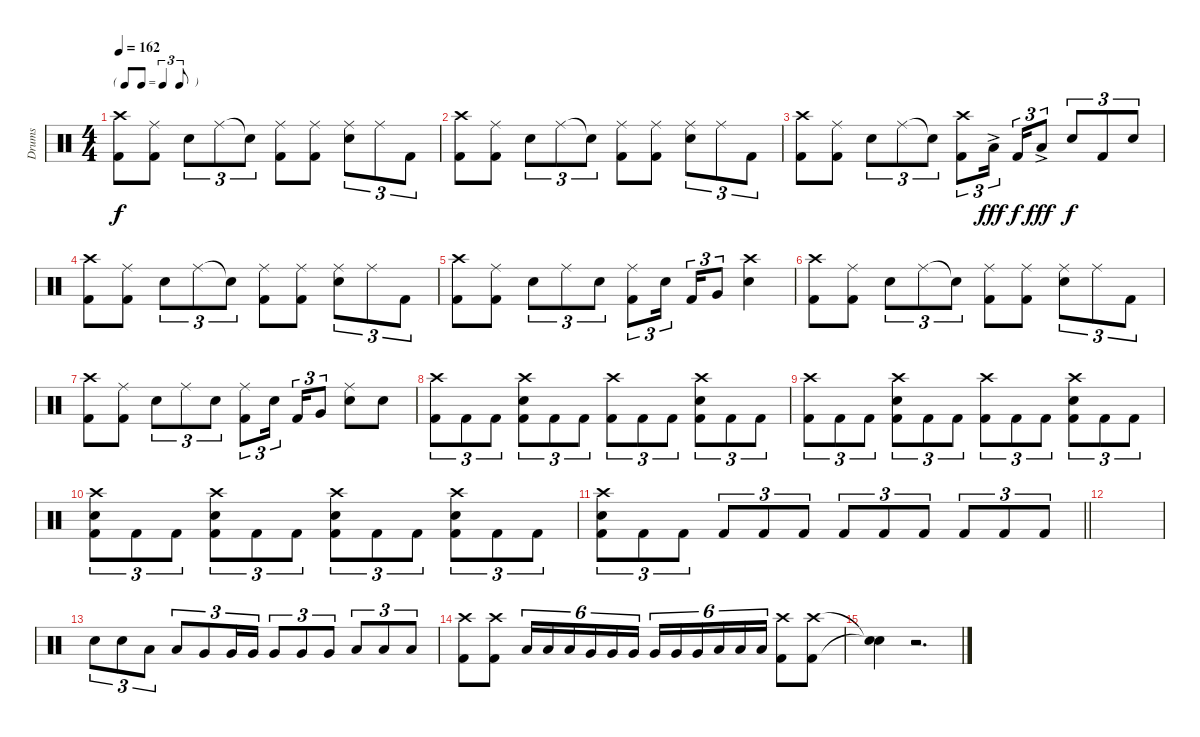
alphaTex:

\track ("Drums" "Drums") {instrument percussion}
\staff {score}
\articulation defaults
\ts (4 4)
\tf triplet8th
\tempo 162
\clef neutral
\ks c
("Crash high (hit)" "Kick (hit) 2").8{dy f} ("Ride (middle)" "Kick (hit) 2").8 "Snare (hit) 2".8{tu (3 2)} "Ride (middle)".8{tu (3 2)} "Snare (hit)"{t}.8{tu (3 2)} ("Ride (middle)" "Kick (hit) 2").8 ("Ride (middle)" "Kick (hit) 2").8 ("Ride (middle)" "Snare (hit) 2").8{tu (3 2)} "Ride (middle)".8{tu (3 2)} "Kick (hit) 2".8{tu (3 2)} |
("Crash high (hit)" "Kick (hit) 2").8 ("Ride (middle)" "Kick (hit) 2").8 "Snare (hit) 2".8{tu (3 2)} "Ride (middle)".8{tu (3 2)} "Snare (hit)"{t}.8{tu (3 2)} ("Ride (middle)" "Kick (hit) 2").8 ("Ride (middle)" "Kick (hit) 2").8 ("Ride (middle)" "Snare (hit) 2").8{tu (3 2)} "Ride (middle)".8{tu (3 2)} "Kick (hit) 2".8{tu (3 2)} |
("Crash high (hit)" "Kick (hit) 2").8 ("Ride (middle)" "Kick (hit) 2").8 "Snare (hit) 2".8{tu (3 2)} "Ride (middle)".8{tu (3 2)} "Snare (hit)"{t}.8{tu (3 2)} ("Crash high (hit)" "Kick (hit) 2").8{tu (3 2)} "Low Tom (hit)"{ac}.16{tu (3 2) dy fff} "Kick (hit) 2".16{tu (3 2) dy f} "Low Tom (hit)"{ac}.8{tu (3 2) dy fff} "Snare (hit) 2".8{tu (3 2) dy f} "Kick (hit) 2".8{tu (3 2)} "Snare (hit) 2".8{tu (3 2)} |
("Crash high (hit)" "Kick (hit) 2").8 ("Ride (middle)" "Kick (hit) 2").8 "Snare (hit) 2".8{tu (3 2)} "Ride (middle)".8{tu (3 2)} "Snare (hit)"{t}.8{tu (3 2)} ("Ride (middle)" "Kick (hit) 2").8 ("Ride (middle)" "Kick (hit) 2").8 ("Ride (middle)" "Snare (hit) 2").8{tu (3 2)} "Ride (middle)".8{tu (3 2)} "Kick (hit) 2".8{tu (3 2)} |
("Crash high (hit)" "Kick (hit) 2").8 ("Ride (middle)" "Kick (hit) 2").8 "Snare (hit) 2".8{tu (3 2)} "Ride (middle)".8{tu (3 2)} "Snare (hit) 2".8{tu (3 2)} ("Ride (middle)" "Kick (hit) 2").8{tu (3 2)} "Snare (hit) 2".16{tu (3 2)} "Kick (hit) 2".16{tu (3 2)} "Very Low Tom (hit)".8{tu (3 2)} ("Crash high (hit)" "Snare (hit) 2").4 |
("Crash high (hit)" "Kick (hit) 2").8 ("Ride (middle)" "Kick (hit) 2").8 "Snare (hit) 2".8{tu (3 2)} "Ride (middle)".8{tu (3 2)} "Snare (hit)"{t}.8{tu (3 2)} ("Ride (middle)" "Kick (hit) 2").8 ("Ride (middle)" "Kick (hit) 2").8 ("Ride (middle)" "Snare (hit) 2").8{tu (3 2)} "Ride (middle)".8{tu (3 2)} "Kick (hit) 2".8{tu (3 2)} |
("Crash high (hit)" "Kick (hit) 2").8 ("Ride (middle)" "Kick (hit) 2").8 "Snare (hit) 2".8{tu (3 2)} "Ride (middle)".8{tu (3 2)} "Snare (hit) 2".8{tu (3 2)} ("Ride (middle)" "Kick (hit) 2").8{tu (3 2)} "Snare (hit) 2".16{tu (3 2)} "Kick (hit) 2".16{tu (3 2)} "Very Low Tom (hit)".8{tu (3 2)} ("Ride (middle)" "Snare (hit) 2").8 "Snare (hit) 2".8 |
("Crash high (hit)" "Kick (hit) 2").8{tu (3 2)} "Kick (hit) 2".8{tu (3 2)} "Kick (hit) 2".8{tu (3 2)} ("Crash high (hit)" "Snare (hit) 2" "Kick (hit) 2").8{tu (3 2)} "Kick (hit) 2".8{tu (3 2)} "Kick (hit) 2".8{tu (3 2)} ("Crash high (hit)" "Kick (hit) 2").8{tu (3 2)} "Kick (hit) 2".8{tu (3 2)} "Kick (hit) 2".8{tu (3 2)} ("Crash high (hit)" "Snare (hit) 2" "Kick (hit) 2").8{tu (3 2)} "Kick (hit) 2".8{tu (3 2)} "Kick (hit) 2".8{tu (3 2)} |
("Crash high (hit)" "Kick (hit) 2").8{tu (3 2)} "Kick (hit) 2".8{tu (3 2)} "Kick (hit) 2".8{tu (3 2)} ("Crash high (hit)" "Snare (hit) 2" "Kick (hit) 2").8{tu (3 2)} "Kick (hit) 2".8{tu (3 2)} "Kick (hit) 2".8{tu (3 2)} ("Crash high (hit)" "Kick (hit) 2").8{tu (3 2)} "Kick (hit) 2".8{tu (3 2)} "Kick (hit) 2".8{tu (3 2)} ("Crash high (hit)" "Snare (hit) 2" "Kick (hit) 2").8{tu (3 2)} "Kick (hit) 2".8{tu (3 2)} "Kick (hit) 2".8{tu (3 2)} |
("Crash high (hit)" "Snare (hit) 2" "Kick (hit) 2").8{tu (3 2)} "Kick (hit) 2".8{tu (3 2)} "Kick (hit) 2".8{tu (3 2)} ("Crash high (hit)" "Snare (hit) 2" "Kick (hit) 2").8{tu (3 2)} "Kick (hit) 2".8{tu (3 2)} "Kick (hit) 2".8{tu (3 2)} ("Crash high (hit)" "Snare (hit) 2" "Kick (hit) 2").8{tu (3 2)} "Kick (hit) 2".8{tu (3 2)} "Kick (hit) 2".8{tu (3 2)} ("Crash high (hit)" "Snare (hit) 2" "Kick (hit) 2").8{tu (3 2)} "Kick (hit) 2".8{tu (3 2)} "Kick (hit) 2".8{tu (3 2)} |
\barLineRight lightlight
("Crash high (hit)" "Snare (hit) 2" "Kick (hit) 2").8{tu (3 2)} "Kick (hit) 2".8{tu (3 2)} "Kick (hit) 2".8{tu (3 2)} "Kick (hit) 2".8{tu (3 2)} "Kick (hit) 2".8{tu (3 2)} "Kick (hit) 2".8{tu (3 2)} "Kick (hit) 2".8{tu (3 2)} "Kick (hit) 2".8{tu (3 2)} "Kick (hit) 2".8{tu (3 2)} "Kick (hit) 2".8{tu (3 2)} "Kick (hit) 2".8{tu (3 2)} "Kick (hit) 2".8{tu (3 2)} |
|
"Snare (hit) 2".8{tu (3 2)} "Snare (hit) 2".8{tu (3 2)} "Low Tom (hit)".8{tu (3 2)} "Low Tom (hit)".8{tu (3 2)} "Very Low Tom (hit)".8{tu (3 2)} "Very Low Tom (hit)".16{tu (3 2)} "Very Low Tom (hit)".16{tu (3 2)} "Very Low Tom (hit)".8{tu (3 2)} "Very Low Tom (hit)".8{tu (3 2)} "Very Low Tom (hit)".8{tu (3 2)} "Low Floor Tom (hit)".8{tu (3 2)} "Low Floor Tom (hit)".8{tu (3 2)} "Low Floor Tom (hit)".8{tu (3 2)} |
("Crash high (hit)" "Kick (hit) 2").8 ("Crash high (hit)" "Kick (hit) 2").8 "Low Tom (hit)".16{tu (6 4)} "Low Tom (hit)".16{tu (6 4)} "Low Tom (hit)".16{tu (6 4)} "Very Low Tom (hit)".16{tu (6 4)} "Very Low Tom (hit)".16{tu (6 4)} "Very Low Tom (hit)".16{tu (6 4)} "Very Low Tom (hit)".16{tu (6 4)} "Very Low Tom (hit)".16{tu (6 4)} "Very Low Tom (hit)".16{tu (6 4)} "Low Floor Tom (hit)".16{tu (6 4)} "Low Floor Tom (hit)".16{tu (6 4)} "Low Floor Tom (hit)".16{tu (6 4)} ("Crash high (hit)" "Kick (hit) 2").8 ("Crash high (hit)" "Kick (hit) 2").8 |
("Snare (hit)"{t} "Snare (hit)"{t}).4 r.2{d}
